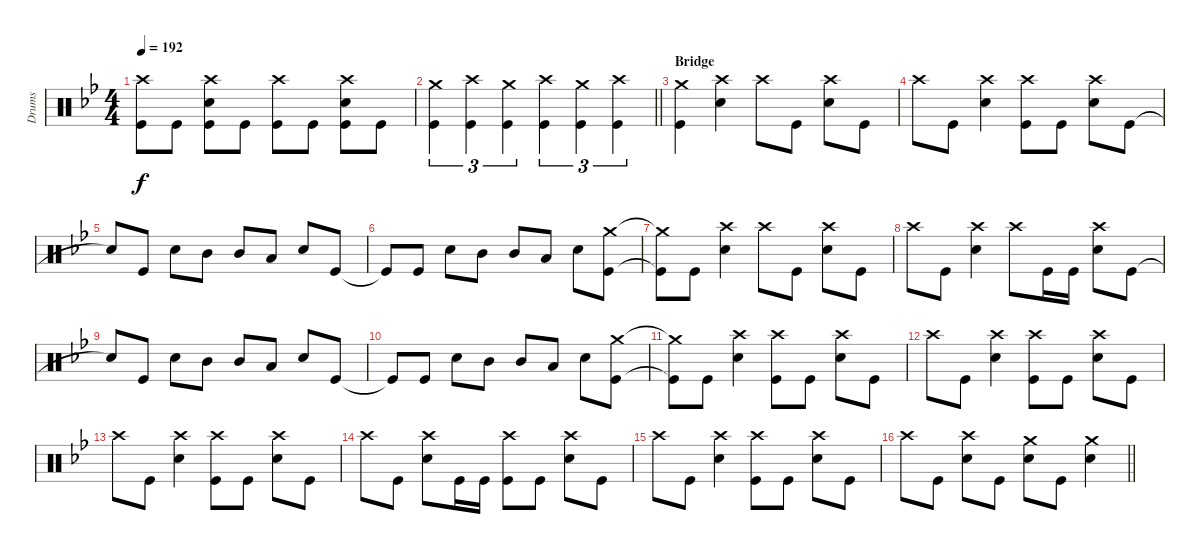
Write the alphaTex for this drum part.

\track ("Drums" "Drums") {instrument percussion}
\staff {score}
\articulation defaults
\ts (4 4)
\tempo 192
\clef neutral
\ks gminor
("Crash high (hit)" "Kick (hit)").8{dy f} "Kick (hit)".8 ("Crash high (hit)" "Electric Snare (hit)" "Kick (hit)").8 "Kick (hit)".8 ("Crash high (hit)" "Kick (hit)").8 "Kick (hit)".8 ("Crash high (hit)" "Electric Snare (hit)" "Kick (hit)").8 "Kick (hit)".8 |
\barLineRight lightlight
("Crash medium (hit)" "Kick (hit)").4{tu (3 2)} ("Crash high (hit)" "Kick (hit)").4{tu (3 2)} ("Crash medium (hit)" "Kick (hit)").4{tu (3 2)} ("Crash high (hit)" "Kick (hit)").4{tu (3 2)} ("Crash medium (hit)" "Kick (hit)").4{tu (3 2)} ("Crash high (hit)" "Kick (hit)").4{tu (3 2)} |
\section ("" "Bridge")
("Crash medium (hit)" "Kick (hit)").4 ("Crash high (hit)" "Electric Snare (hit)").4 "Crash high (hit)".8 "Kick (hit)".8 ("Crash high (hit)" "Electric Snare (hit)").8 "Kick (hit)".8 |
"Crash high (hit)".8 "Kick (hit)".8 ("Crash high (hit)" "Electric Snare (hit)").4 ("Crash high (hit)" "Kick (hit)").8 "Kick (hit)".8 ("Crash high (hit)" "Electric Snare (hit)").8 "Kick (hit)".8 |
"Snare (hit)"{t}.8 "Kick (hit)".8 "Electric Snare (hit)".8 "Mid Tom (hit)".8 "Mid Tom (hit)".8 "Low Tom (hit)".8 "Electric Snare (hit)".8 "Kick (hit)".8 |
"Kick (hit)"{t}.8 "Kick (hit)".8 "Electric Snare (hit)".8 "Mid Tom (hit)".8 "Mid Tom (hit)".8 "Low Tom (hit)".8 "Electric Snare (hit)".8 ("Crash medium (hit)" "Kick (hit)").8 |
("Crash medium (hit)"{t} "Kick (hit)"{t}).8 "Kick (hit)".8 ("Crash high (hit)" "Electric Snare (hit)").4 "Crash high (hit)".8 "Kick (hit)".8 ("Crash high (hit)" "Electric Snare (hit)").8 "Kick (hit)".8 |
"Crash high (hit)".8 "Kick (hit)".8 ("Crash high (hit)" "Electric Snare (hit)").4 "Crash high (hit)".8 "Kick (hit)".16 "Kick (hit)".16 ("Crash high (hit)" "Electric Snare (hit)").8 "Kick (hit)".8 |
"Snare (hit)"{t}.8 "Kick (hit)".8 "Electric Snare (hit)".8 "Mid Tom (hit)".8 "Mid Tom (hit)".8 "Low Tom (hit)".8 "Electric Snare (hit)".8 "Kick (hit)".8 |
"Kick (hit)"{t}.8 "Kick (hit)".8 "Electric Snare (hit)".8 "Mid Tom (hit)".8 "Mid Tom (hit)".8 "Low Tom (hit)".8 "Electric Snare (hit)".8 ("Crash medium (hit)" "Kick (hit)").8 |
("Crash medium (hit)"{t} "Kick (hit)"{t}).8 "Kick (hit)".8 ("Crash high (hit)" "Electric Snare (hit)").4 ("Crash high (hit)" "Kick (hit)").8 "Kick (hit)".8 ("Crash high (hit)" "Electric Snare (hit)").8 "Kick (hit)".8 |
"Crash high (hit)".8 "Kick (hit)".8 ("Crash high (hit)" "Electric Snare (hit)").4 ("Crash high (hit)" "Kick (hit)").8 "Kick (hit)".8 ("Crash high (hit)" "Electric Snare (hit)").8 "Kick (hit)".8 |
"Crash high (hit)".8 "Kick (hit)".8 ("Crash high (hit)" "Electric Snare (hit)").4 ("Crash high (hit)" "Kick (hit)").8 "Kick (hit)".8 ("Crash high (hit)" "Electric Snare (hit)").8 "Kick (hit)".8 |
"Crash high (hit)".8 "Kick (hit)".8 ("Crash high (hit)" "Electric Snare (hit)").8 "Kick (hit)".16 "Kick (hit)".16 ("Crash high (hit)" "Kick (hit)").8 "Kick (hit)".8 ("Crash high (hit)" "Electric Snare (hit)").8 "Kick (hit)".8 |
"Crash high (hit)".8 "Kick (hit)".8 ("Crash high (hit)" "Electric Snare (hit)").4 ("Crash high (hit)" "Kick (hit)").8 "Kick (hit)".8 ("Crash high (hit)" "Electric Snare (hit)").8 "Kick (hit)".8 |
\barLineRight lightlight "Crash high (hit)".8 "Kick (hit)".8
("Crash high (hit)" "Electric Snare (hit)").8 "Kick (hit)".8 ("Crash medium (hit)" "Electric Snare (hit)").8 "Kick (hit)".8 ("Crash medium (hit)" "Electric Snare (hit)").4
